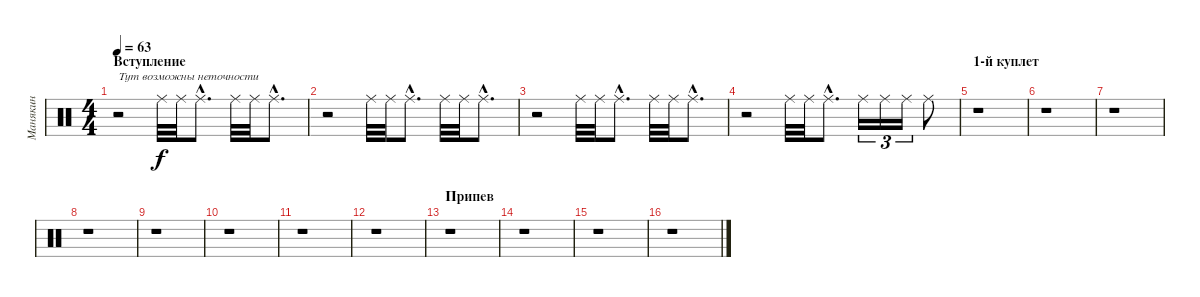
\track ("Манякин" "Манякин") {instrument percussion}
\staff {score}
\articulation defaults
\ts (4 4)
\section ("" "Вступление")
\tempo 63
\clef neutral
\ks c
r.2{txt "Тут возможны неточности" dy f volume 9} "Ride (middle)".32 "Ride (middle)".32 "Ride (middle)"{hac}.8{d} "Ride (middle)".32 "Ride (middle)".32 "Ride (middle)"{hac}.8{d} |
r.2 "Ride (middle)".32 "Ride (middle)".32 "Ride (middle)"{hac}.8{d} "Ride (middle)".32 "Ride (middle)".32 "Ride (middle)"{hac}.8{d} |
r.2 "Ride (middle)".32 "Ride (middle)".32 "Ride (middle)"{hac}.8{d} "Ride (middle)".32 "Ride (middle)".32 "Ride (middle)"{hac}.8{d} |
r.2 "Ride (middle)".32 "Ride (middle)".32 "Ride (middle)"{hac}.8{d} "Ride (middle)".16{tu (3 2)} "Ride (middle)".16{tu (3 2)} "Ride (middle)".16{tu (3 2)} "Ride (middle)".8 |
\section ("" "1-й куплет")
r.1 |
r.1 |
r.1 |
r.1 |
r.1 |
r.1 |
r.1 |
r.1 |
\section ("" "Припев")
r.1 |
r.1 |
r.1 |
r.1
